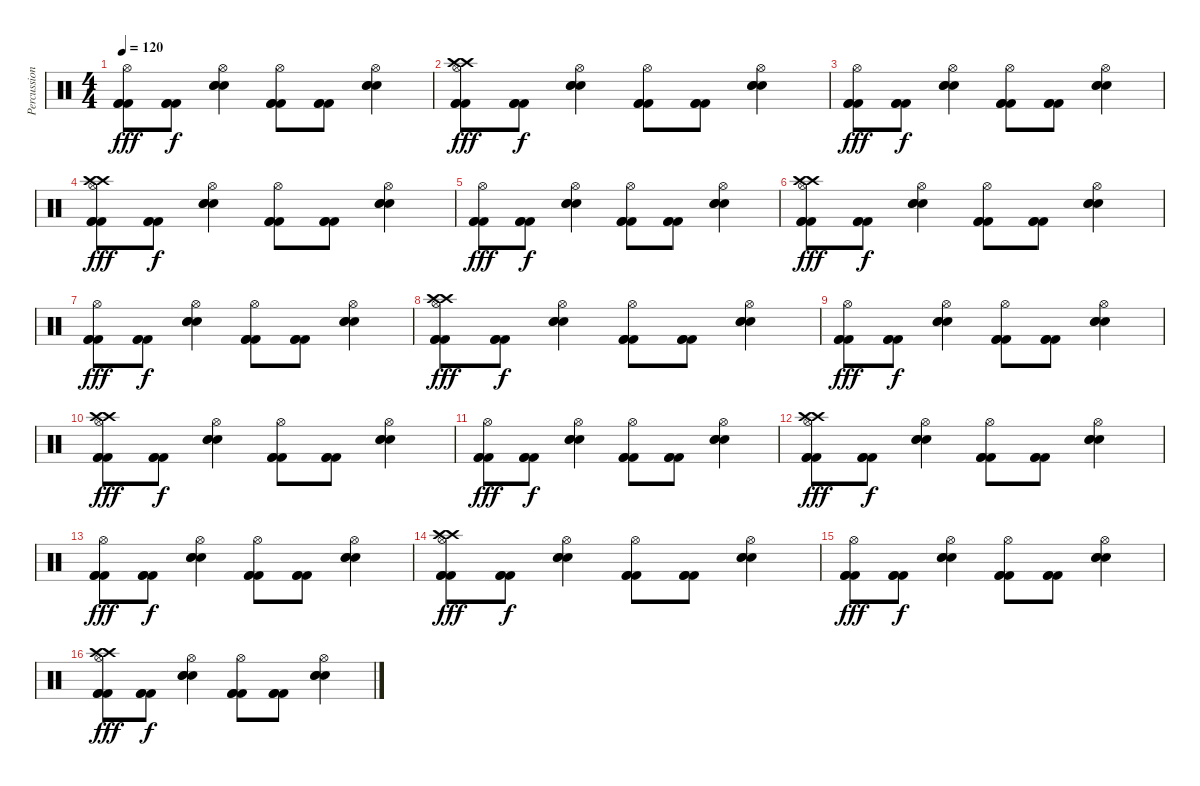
\track ("Percussions" "Percussion") {instrument percussion}
\staff {score}
\articulation defaults
\ts (4 4)
\tempo 120
\clef neutral
\ks c
("Hi-Hat (open)" "Kick (hit) 2" "Kick (hit) 2" "Kick (hit) 2").8{dy fff} ("Kick (hit) 2" "Kick (hit) 2" "Kick (hit) 2").8{dy f} ("Hi-Hat (open)" "Snare (hit) 2" "Snare (hit) 2" "Snare (hit) 2").4 ("Hi-Hat (open)" "Kick (hit) 2" "Kick (hit) 2" "Kick (hit) 2").8 ("Kick (hit) 2" "Kick (hit) 2" "Kick (hit) 2").8 ("Hi-Hat (open)" "Snare (hit) 2" "Snare (hit) 2" "Snare (hit) 2").4 |
("Hi-Hat (open)" "Crash high (hit)" "Crash high (hit)" "Kick (hit) 2" "Kick (hit) 2" "Kick (hit) 2").8{dy fff} ("Kick (hit) 2" "Kick (hit) 2" "Kick (hit) 2").8{dy f} ("Hi-Hat (open)" "Snare (hit) 2" "Snare (hit) 2" "Snare (hit) 2").4 ("Hi-Hat (open)" "Kick (hit) 2" "Kick (hit) 2" "Kick (hit) 2").8 ("Kick (hit) 2" "Kick (hit) 2" "Kick (hit) 2").8 ("Hi-Hat (open)" "Snare (hit) 2" "Snare (hit) 2" "Snare (hit) 2").4 |
("Hi-Hat (open)" "Kick (hit) 2" "Kick (hit) 2" "Kick (hit) 2").8{dy fff} ("Kick (hit) 2" "Kick (hit) 2" "Kick (hit) 2").8{dy f} ("Hi-Hat (open)" "Snare (hit) 2" "Snare (hit) 2" "Snare (hit) 2").4 ("Hi-Hat (open)" "Kick (hit) 2" "Kick (hit) 2" "Kick (hit) 2").8 ("Kick (hit) 2" "Kick (hit) 2" "Kick (hit) 2").8 ("Hi-Hat (open)" "Snare (hit) 2" "Snare (hit) 2" "Snare (hit) 2").4 |
("Hi-Hat (open)" "Crash high (hit)" "Crash high (hit)" "Kick (hit) 2" "Kick (hit) 2" "Kick (hit) 2").8{dy fff} ("Kick (hit) 2" "Kick (hit) 2" "Kick (hit) 2").8{dy f} ("Hi-Hat (open)" "Snare (hit) 2" "Snare (hit) 2" "Snare (hit) 2").4 ("Hi-Hat (open)" "Kick (hit) 2" "Kick (hit) 2" "Kick (hit) 2").8 ("Kick (hit) 2" "Kick (hit) 2" "Kick (hit) 2").8 ("Hi-Hat (open)" "Snare (hit) 2" "Snare (hit) 2" "Snare (hit) 2").4 |
("Hi-Hat (open)" "Kick (hit) 2" "Kick (hit) 2" "Kick (hit) 2").8{dy fff} ("Kick (hit) 2" "Kick (hit) 2" "Kick (hit) 2").8{dy f} ("Hi-Hat (open)" "Snare (hit) 2" "Snare (hit) 2" "Snare (hit) 2").4 ("Hi-Hat (open)" "Kick (hit) 2" "Kick (hit) 2" "Kick (hit) 2").8 ("Kick (hit) 2" "Kick (hit) 2" "Kick (hit) 2").8 ("Hi-Hat (open)" "Snare (hit) 2" "Snare (hit) 2" "Snare (hit) 2").4 |
("Hi-Hat (open)" "Crash high (hit)" "Crash high (hit)" "Kick (hit) 2" "Kick (hit) 2" "Kick (hit) 2").8{dy fff} ("Kick (hit) 2" "Kick (hit) 2" "Kick (hit) 2").8{dy f} ("Hi-Hat (open)" "Snare (hit) 2" "Snare (hit) 2" "Snare (hit) 2").4 ("Hi-Hat (open)" "Kick (hit) 2" "Kick (hit) 2" "Kick (hit) 2").8 ("Kick (hit) 2" "Kick (hit) 2" "Kick (hit) 2").8 ("Hi-Hat (open)" "Snare (hit) 2" "Snare (hit) 2" "Snare (hit) 2").4 |
("Hi-Hat (open)" "Kick (hit) 2" "Kick (hit) 2" "Kick (hit) 2").8{dy fff} ("Kick (hit) 2" "Kick (hit) 2" "Kick (hit) 2").8{dy f} ("Hi-Hat (open)" "Snare (hit) 2" "Snare (hit) 2" "Snare (hit) 2").4 ("Hi-Hat (open)" "Kick (hit) 2" "Kick (hit) 2" "Kick (hit) 2").8 ("Kick (hit) 2" "Kick (hit) 2" "Kick (hit) 2").8 ("Hi-Hat (open)" "Snare (hit) 2" "Snare (hit) 2" "Snare (hit) 2").4 |
("Hi-Hat (open)" "Crash high (hit)" "Crash high (hit)" "Kick (hit) 2" "Kick (hit) 2" "Kick (hit) 2").8{dy fff} ("Kick (hit) 2" "Kick (hit) 2" "Kick (hit) 2").8{dy f} ("Hi-Hat (open)" "Snare (hit) 2" "Snare (hit) 2" "Snare (hit) 2").4 ("Hi-Hat (open)" "Kick (hit) 2" "Kick (hit) 2" "Kick (hit) 2").8 ("Kick (hit) 2" "Kick (hit) 2" "Kick (hit) 2").8 ("Hi-Hat (open)" "Snare (hit) 2" "Snare (hit) 2" "Snare (hit) 2").4 |
("Hi-Hat (open)" "Kick (hit) 2" "Kick (hit) 2" "Kick (hit) 2").8{dy fff} ("Kick (hit) 2" "Kick (hit) 2" "Kick (hit) 2").8{dy f} ("Hi-Hat (open)" "Snare (hit) 2" "Snare (hit) 2" "Snare (hit) 2").4 ("Hi-Hat (open)" "Kick (hit) 2" "Kick (hit) 2" "Kick (hit) 2").8 ("Kick (hit) 2" "Kick (hit) 2" "Kick (hit) 2").8 ("Hi-Hat (open)" "Snare (hit) 2" "Snare (hit) 2" "Snare (hit) 2").4 |
("Hi-Hat (open)" "Crash high (hit)" "Crash high (hit)" "Kick (hit) 2" "Kick (hit) 2" "Kick (hit) 2").8{dy fff} ("Kick (hit) 2" "Kick (hit) 2" "Kick (hit) 2").8{dy f} ("Hi-Hat (open)" "Snare (hit) 2" "Snare (hit) 2" "Snare (hit) 2").4 ("Hi-Hat (open)" "Kick (hit) 2" "Kick (hit) 2" "Kick (hit) 2").8 ("Kick (hit) 2" "Kick (hit) 2" "Kick (hit) 2").8 ("Hi-Hat (open)" "Snare (hit) 2" "Snare (hit) 2" "Snare (hit) 2").4 |
("Hi-Hat (open)" "Kick (hit) 2" "Kick (hit) 2" "Kick (hit) 2").8{dy fff} ("Kick (hit) 2" "Kick (hit) 2" "Kick (hit) 2").8{dy f} ("Hi-Hat (open)" "Snare (hit) 2" "Snare (hit) 2" "Snare (hit) 2").4 ("Hi-Hat (open)" "Kick (hit) 2" "Kick (hit) 2" "Kick (hit) 2").8 ("Kick (hit) 2" "Kick (hit) 2" "Kick (hit) 2").8 ("Hi-Hat (open)" "Snare (hit) 2" "Snare (hit) 2" "Snare (hit) 2").4 |
("Hi-Hat (open)" "Crash high (hit)" "Crash high (hit)" "Kick (hit) 2" "Kick (hit) 2" "Kick (hit) 2").8{dy fff} ("Kick (hit) 2" "Kick (hit) 2" "Kick (hit) 2").8{dy f} ("Hi-Hat (open)" "Snare (hit) 2" "Snare (hit) 2" "Snare (hit) 2").4 ("Hi-Hat (open)" "Kick (hit) 2" "Kick (hit) 2" "Kick (hit) 2").8 ("Kick (hit) 2" "Kick (hit) 2" "Kick (hit) 2").8 ("Hi-Hat (open)" "Snare (hit) 2" "Snare (hit) 2" "Snare (hit) 2").4 |
("Hi-Hat (open)" "Kick (hit) 2" "Kick (hit) 2" "Kick (hit) 2").8{dy fff} ("Kick (hit) 2" "Kick (hit) 2" "Kick (hit) 2").8{dy f} ("Hi-Hat (open)" "Snare (hit) 2" "Snare (hit) 2" "Snare (hit) 2").4 ("Hi-Hat (open)" "Kick (hit) 2" "Kick (hit) 2" "Kick (hit) 2").8 ("Kick (hit) 2" "Kick (hit) 2" "Kick (hit) 2").8 ("Hi-Hat (open)" "Snare (hit) 2" "Snare (hit) 2" "Snare (hit) 2").4 |
("Hi-Hat (open)" "Crash high (hit)" "Crash high (hit)" "Kick (hit) 2" "Kick (hit) 2" "Kick (hit) 2").8{dy fff} ("Kick (hit) 2" "Kick (hit) 2" "Kick (hit) 2").8{dy f} ("Hi-Hat (open)" "Snare (hit) 2" "Snare (hit) 2" "Snare (hit) 2").4 ("Hi-Hat (open)" "Kick (hit) 2" "Kick (hit) 2" "Kick (hit) 2").8 ("Kick (hit) 2" "Kick (hit) 2" "Kick (hit) 2").8 ("Hi-Hat (open)" "Snare (hit) 2" "Snare (hit) 2" "Snare (hit) 2").4 |
("Hi-Hat (open)" "Kick (hit) 2" "Kick (hit) 2" "Kick (hit) 2").8{dy fff} ("Kick (hit) 2" "Kick (hit) 2" "Kick (hit) 2").8{dy f} ("Hi-Hat (open)" "Snare (hit) 2" "Snare (hit) 2" "Snare (hit) 2").4 ("Hi-Hat (open)" "Kick (hit) 2" "Kick (hit) 2" "Kick (hit) 2").8 ("Kick (hit) 2" "Kick (hit) 2" "Kick (hit) 2").8 ("Hi-Hat (open)" "Snare (hit) 2" "Snare (hit) 2" "Snare (hit) 2").4 |
("Hi-Hat (open)" "Crash high (hit)" "Crash high (hit)" "Kick (hit) 2" "Kick (hit) 2" "Kick (hit) 2").8{dy fff} ("Kick (hit) 2" "Kick (hit) 2" "Kick (hit) 2").8{dy f} ("Hi-Hat (open)" "Snare (hit) 2" "Snare (hit) 2" "Snare (hit) 2").4 ("Hi-Hat (open)" "Kick (hit) 2" "Kick (hit) 2" "Kick (hit) 2").8 ("Kick (hit) 2" "Kick (hit) 2" "Kick (hit) 2").8 ("Hi-Hat (open)" "Snare (hit) 2" "Snare (hit) 2" "Snare (hit) 2").4
